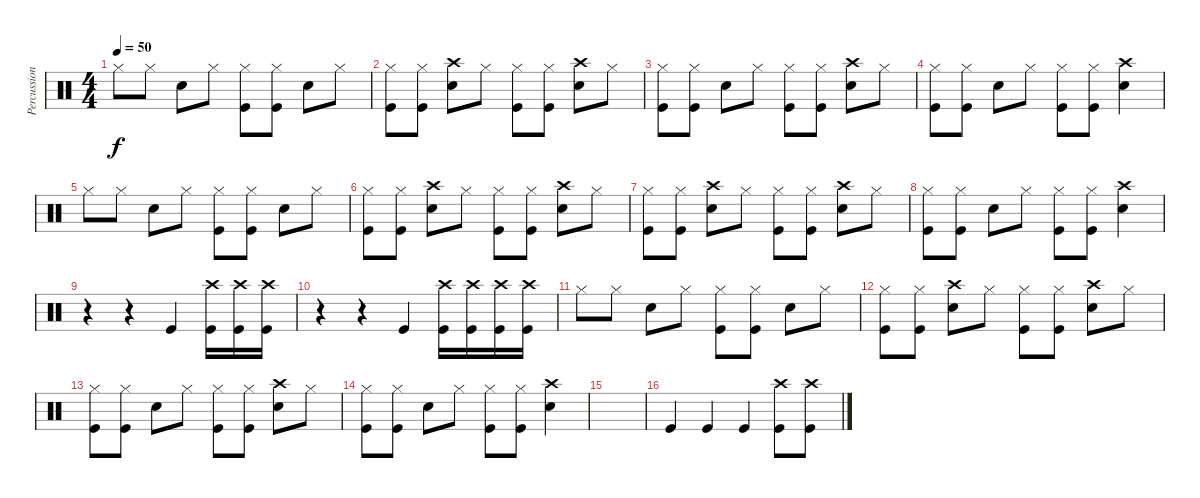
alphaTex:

\track ("Percussion" "Percussion") {instrument percussion}
\staff {score}
\articulation defaults
\ts (4 4)
\tempo 50
\clef neutral
\ks c "Hi-Hat (closed)".8{dy f} "Hi-Hat (closed)".8 "Electric Snare (hit)".8 "Hi-Hat (closed)".8
("Hi-Hat (closed)" "Kick (hit)").8 ("Hi-Hat (closed)" "Kick (hit)").8 "Electric Snare (hit)".8 "Hi-Hat (closed)".8 |
("Hi-Hat (closed)" "Kick (hit)").8 ("Hi-Hat (closed)" "Kick (hit)").8 ("Electric Snare (hit)" "Crash high (hit)").8 "Hi-Hat (closed)".8 ("Hi-Hat (closed)" "Kick (hit)").8 ("Hi-Hat (closed)" "Kick (hit)").8 ("Electric Snare (hit)" "Crash high (hit)").8 "Hi-Hat (closed)".8 |
("Hi-Hat (closed)" "Kick (hit)").8 ("Hi-Hat (closed)" "Kick (hit)").8 "Electric Snare (hit)".8 "Hi-Hat (closed)".8 ("Hi-Hat (closed)" "Kick (hit)").8 ("Hi-Hat (closed)" "Kick (hit)").8 ("Electric Snare (hit)" "Crash high (hit)").8 "Hi-Hat (closed)".8 |
("Hi-Hat (closed)" "Kick (hit)").8 ("Hi-Hat (closed)" "Kick (hit)").8 "Electric Snare (hit)".8 "Hi-Hat (closed)".8 ("Hi-Hat (closed)" "Kick (hit)").8 ("Hi-Hat (closed)" "Kick (hit)").8 ("Electric Snare (hit)" "Crash high (hit)").4 |
"Hi-Hat (closed)".8 "Hi-Hat (closed)".8 "Electric Snare (hit)".8 "Hi-Hat (closed)".8 ("Hi-Hat (closed)" "Kick (hit)").8 ("Hi-Hat (closed)" "Kick (hit)").8 "Electric Snare (hit)".8 "Hi-Hat (closed)".8 |
("Hi-Hat (closed)" "Kick (hit)").8 ("Hi-Hat (closed)" "Kick (hit)").8 ("Electric Snare (hit)" "Crash high (hit)").8 "Hi-Hat (closed)".8 ("Hi-Hat (closed)" "Kick (hit)").8 ("Hi-Hat (closed)" "Kick (hit)").8 ("Electric Snare (hit)" "Crash high (hit)").8 "Hi-Hat (closed)".8 |
("Hi-Hat (closed)" "Kick (hit)").8 ("Hi-Hat (closed)" "Kick (hit)").8 ("Electric Snare (hit)" "Crash high (hit)").8 "Hi-Hat (closed)".8 ("Hi-Hat (closed)" "Kick (hit)").8 ("Hi-Hat (closed)" "Kick (hit)").8 ("Electric Snare (hit)" "Crash high (hit)").8 "Hi-Hat (closed)".8 |
("Hi-Hat (closed)" "Kick (hit)").8 ("Hi-Hat (closed)" "Kick (hit)").8 "Electric Snare (hit)".8 "Hi-Hat (closed)".8 ("Hi-Hat (closed)" "Kick (hit)").8 ("Hi-Hat (closed)" "Kick (hit)").8 ("Electric Snare (hit)" "Crash high (hit)").4 |
r.4 r.4 "Kick (hit)".4 ("Kick (hit)" "Crash high (hit)").16 ("Kick (hit)" "Crash high (hit)").16 ("Kick (hit)" "Crash high (hit)").16 |
r.4 r.4 "Kick (hit)".4 ("Kick (hit)" "Crash high (hit)").16 ("Kick (hit)" "Crash high (hit)").16 ("Kick (hit)" "Crash high (hit)").16 ("Kick (hit)" "Crash high (hit)").16 |
"Hi-Hat (closed)".8 "Hi-Hat (closed)".8 "Electric Snare (hit)".8 "Hi-Hat (closed)".8 ("Hi-Hat (closed)" "Kick (hit)").8 ("Hi-Hat (closed)" "Kick (hit)").8 "Electric Snare (hit)".8 "Hi-Hat (closed)".8 |
("Hi-Hat (closed)" "Kick (hit)").8 ("Hi-Hat (closed)" "Kick (hit)").8 ("Electric Snare (hit)" "Crash high (hit)").8 "Hi-Hat (closed)".8 ("Hi-Hat (closed)" "Kick (hit)").8 ("Hi-Hat (closed)" "Kick (hit)").8 ("Electric Snare (hit)" "Crash high (hit)").8 "Hi-Hat (closed)".8 |
("Hi-Hat (closed)" "Kick (hit)").8 ("Hi-Hat (closed)" "Kick (hit)").8 "Electric Snare (hit)".8 "Hi-Hat (closed)".8 ("Hi-Hat (closed)" "Kick (hit)").8 ("Hi-Hat (closed)" "Kick (hit)").8 ("Electric Snare (hit)" "Crash high (hit)").8 "Hi-Hat (closed)".8 |
("Hi-Hat (closed)" "Kick (hit)").8 ("Hi-Hat (closed)" "Kick (hit)").8 "Electric Snare (hit)".8 "Hi-Hat (closed)".8 ("Hi-Hat (closed)" "Kick (hit)").8 ("Hi-Hat (closed)" "Kick (hit)").8 ("Electric Snare (hit)" "Crash high (hit)").4 |
|
"Kick (hit)".4 "Kick (hit)".4 "Kick (hit)".4 ("Kick (hit)" "Crash high (hit)").8 ("Kick (hit)" "Crash high (hit)").8
